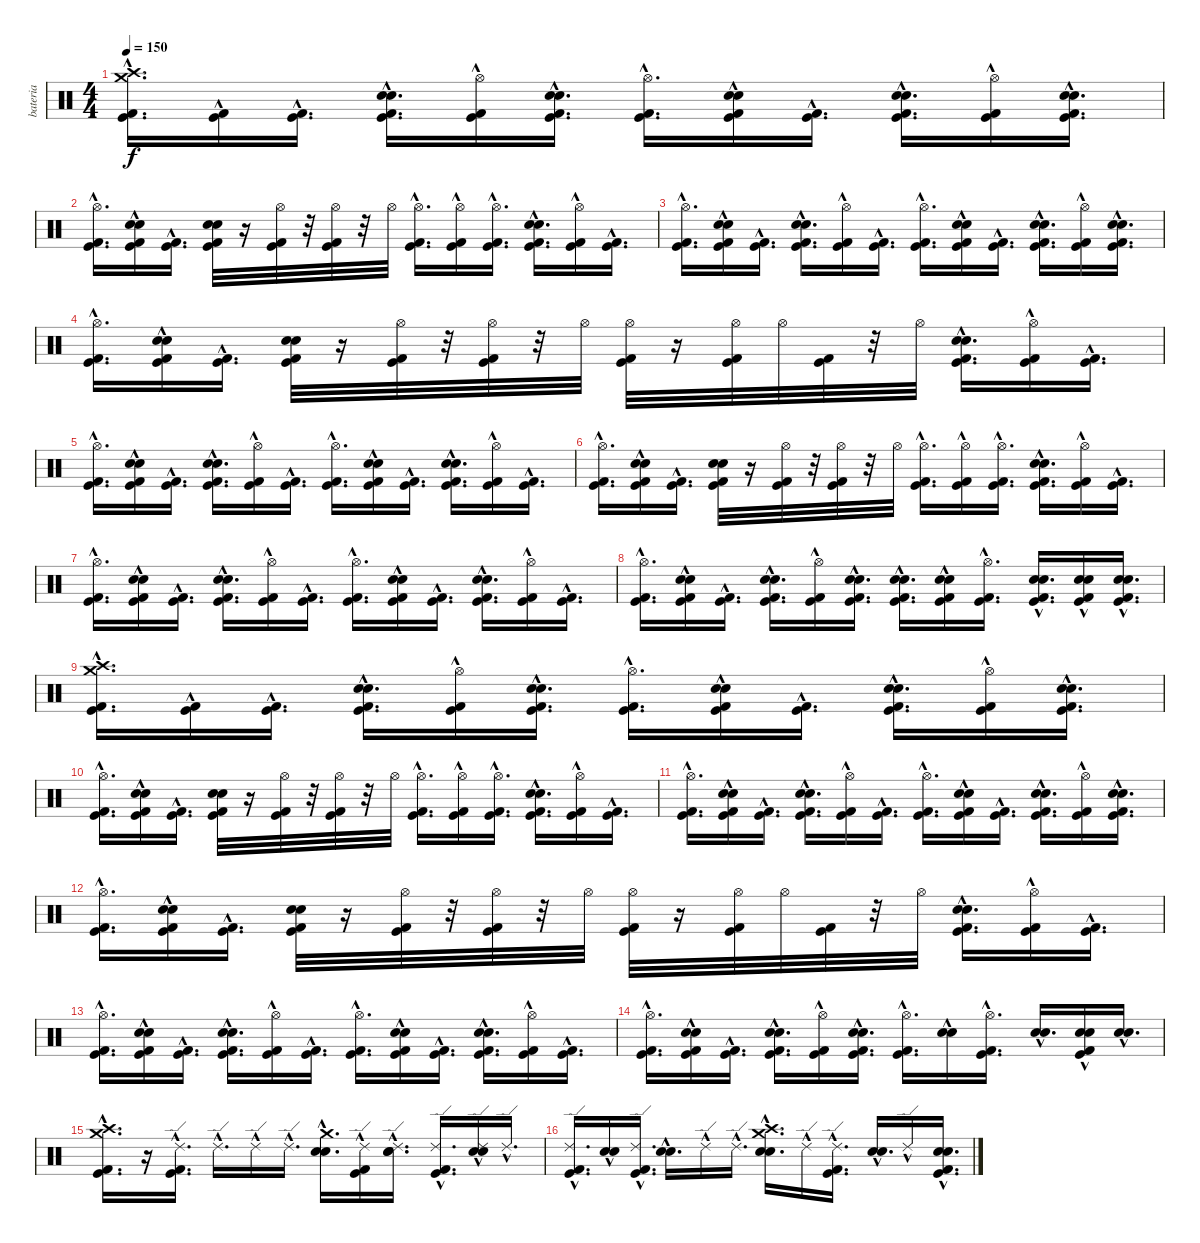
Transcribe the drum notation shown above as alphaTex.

\track ("bateria" "bateria") {instrument percussion}
\staff {score}
\articulation defaults
\ts (4 4)
\tempo 150
\clef neutral
\ks c
("Crash high (hit)"{hac} "Crash medium (hit)"{hac} "Kick (hit) 2"{hac} "Kick (hit)"{hac}).16{d dy f} ("Kick (hit) 2"{hac} "Kick (hit)"{hac}).16 ("Kick (hit) 2"{hac} "Kick (hit)"{hac}).16{d} ("Electric Snare (hit)"{hac} "Snare (hit) 2"{hac} "Kick (hit) 2"{hac} "Kick (hit)"{hac}).16{d} ("Hi-Hat (open)"{hac} "Kick (hit) 2"{hac} "Kick (hit)"{hac}).16 ("Electric Snare (hit)"{hac} "Snare (hit) 2"{hac} "Kick (hit) 2"{hac} "Kick (hit)"{hac}).16{d} ("Hi-Hat (open)"{hac} "Kick (hit) 2"{hac} "Kick (hit)"{hac}).16{d} ("Electric Snare (hit)"{hac} "Snare (hit) 2"{hac} "Kick (hit) 2"{hac} "Kick (hit)"{hac}).16 ("Kick (hit) 2"{hac} "Kick (hit)"{hac}).16{d} ("Electric Snare (hit)"{hac} "Snare (hit) 2"{hac} "Kick (hit) 2"{hac} "Kick (hit)"{hac}).16{d} ("Hi-Hat (open)"{hac} "Kick (hit) 2"{hac} "Kick (hit)"{hac}).16 ("Electric Snare (hit)"{hac} "Snare (hit) 2"{hac} "Kick (hit) 2"{hac} "Kick (hit)"{hac}).16{d} |
("Hi-Hat (open)"{hac} "Kick (hit) 2"{hac} "Kick (hit)"{hac}).16{d} ("Electric Snare (hit)"{hac} "Snare (hit) 2"{hac} "Kick (hit) 2"{hac} "Kick (hit)"{hac}).16 ("Kick (hit) 2"{hac} "Kick (hit)"{hac}).16{d} ("Snare (hit) 2" "Electric Snare (hit)" "Kick (hit) 2" "Kick (hit)").32 r.16 ("Hi-Hat (open)" "Kick (hit) 2" "Kick (hit)").32 r.32 ("Hi-Hat (open)" "Kick (hit) 2" "Kick (hit)").32 r.32 "Hi-Hat (open)".32 ("Hi-Hat (open)"{hac} "Kick (hit) 2"{hac} "Kick (hit)"{hac}).16{d} ("Hi-Hat (open)"{hac} "Kick (hit) 2"{hac} "Kick (hit)"{hac}).16 ("Hi-Hat (open)"{hac} "Kick (hit) 2"{hac} "Kick (hit)"{hac}).16{d} ("Electric Snare (hit)"{hac} "Snare (hit) 2"{hac} "Kick (hit) 2"{hac} "Kick (hit)"{hac}).16{d} ("Hi-Hat (open)"{hac} "Kick (hit) 2"{hac} "Kick (hit)"{hac}).16 ("Kick (hit) 2"{hac} "Kick (hit)"{hac}).16{d} |
("Hi-Hat (open)"{hac} "Kick (hit) 2"{hac} "Kick (hit)"{hac}).16{d} ("Snare (hit) 2"{hac} "Electric Snare (hit)"{hac} "Kick (hit) 2"{hac} "Kick (hit)"{hac}).16 ("Kick (hit) 2"{hac} "Kick (hit)"{hac}).16{d} ("Electric Snare (hit)"{hac} "Snare (hit) 2"{hac} "Kick (hit) 2"{hac} "Kick (hit)"{hac}).16{d} ("Hi-Hat (open)"{hac} "Kick (hit) 2"{hac} "Kick (hit)"{hac}).16 ("Kick (hit) 2"{hac} "Kick (hit)"{hac}).16{d} ("Hi-Hat (open)"{hac} "Kick (hit) 2"{hac} "Kick (hit)"{hac}).16{d} ("Electric Snare (hit)"{hac} "Snare (hit) 2"{hac} "Kick (hit) 2"{hac} "Kick (hit)"{hac}).16 ("Kick (hit) 2"{hac} "Kick (hit)"{hac}).16{d} ("Electric Snare (hit)"{hac} "Snare (hit) 2"{hac} "Kick (hit) 2"{hac} "Kick (hit)"{hac}).16{d} ("Hi-Hat (open)"{hac} "Kick (hit) 2"{hac} "Kick (hit)"{hac}).16 ("Electric Snare (hit)"{hac} "Snare (hit) 2"{hac} "Kick (hit) 2"{hac} "Kick (hit)"{hac}).16{d} |
("Hi-Hat (open)"{hac} "Kick (hit) 2"{hac} "Kick (hit)"{hac}).16{d} ("Electric Snare (hit)"{hac} "Snare (hit) 2"{hac} "Kick (hit) 2"{hac} "Kick (hit)"{hac}).16 ("Kick (hit) 2"{hac} "Kick (hit)"{hac}).16{d} ("Electric Snare (hit)" "Snare (hit) 2" "Kick (hit) 2" "Kick (hit)").32 r.16 ("Hi-Hat (open)" "Kick (hit) 2" "Kick (hit)").32 r.32 ("Hi-Hat (open)" "Kick (hit) 2" "Kick (hit)").32 r.32 "Hi-Hat (open)".32 ("Hi-Hat (open)" "Kick (hit)" "Kick (hit) 2").32 r.16 ("Hi-Hat (open)" "Kick (hit)" "Kick (hit) 2").32 "Hi-Hat (open)".32 ("Kick (hit)" "Kick (hit) 2").32 r.32 "Hi-Hat (open)".32 ("Electric Snare (hit)"{hac} "Snare (hit) 2"{hac} "Kick (hit) 2"{hac} "Kick (hit)"{hac}).16{d} ("Hi-Hat (open)"{hac} "Kick (hit) 2"{hac} "Kick (hit)"{hac}).16 ("Kick (hit) 2"{hac} "Kick (hit)"{hac}).16{d} |
("Hi-Hat (open)"{hac} "Kick (hit) 2"{hac} "Kick (hit)"{hac}).16{d} ("Electric Snare (hit)"{hac} "Snare (hit) 2"{hac} "Kick (hit) 2"{hac} "Kick (hit)"{hac}).16 ("Kick (hit) 2"{hac} "Kick (hit)"{hac}).16{d} ("Electric Snare (hit)"{hac} "Snare (hit) 2"{hac} "Kick (hit) 2"{hac} "Kick (hit)"{hac}).16{d} ("Hi-Hat (open)"{hac} "Kick (hit) 2"{hac} "Kick (hit)"{hac}).16 ("Kick (hit) 2"{hac} "Kick (hit)"{hac}).16{d} ("Hi-Hat (open)"{hac} "Kick (hit) 2"{hac} "Kick (hit)"{hac}).16{d} ("Electric Snare (hit)"{hac} "Snare (hit) 2"{hac} "Kick (hit) 2"{hac} "Kick (hit)"{hac}).16 ("Kick (hit) 2"{hac} "Kick (hit)"{hac}).16{d} ("Electric Snare (hit)"{hac} "Snare (hit) 2"{hac} "Kick (hit) 2"{hac} "Kick (hit)"{hac}).16{d} ("Hi-Hat (open)"{hac} "Kick (hit) 2"{hac} "Kick (hit)"{hac}).16 ("Kick (hit) 2"{hac} "Kick (hit)"{hac}).16{d} |
("Hi-Hat (open)"{hac} "Kick (hit) 2"{hac} "Kick (hit)"{hac}).16{d} ("Electric Snare (hit)"{hac} "Snare (hit) 2"{hac} "Kick (hit) 2"{hac} "Kick (hit)"{hac}).16 ("Kick (hit) 2"{hac} "Kick (hit)"{hac}).16{d} ("Snare (hit) 2" "Electric Snare (hit)" "Kick (hit) 2" "Kick (hit)").32 r.16 ("Hi-Hat (open)" "Kick (hit) 2" "Kick (hit)").32 r.32 ("Hi-Hat (open)" "Kick (hit) 2" "Kick (hit)").32 r.32 "Hi-Hat (open)".32 ("Hi-Hat (open)"{hac} "Kick (hit) 2"{hac} "Kick (hit)"{hac}).16{d} ("Hi-Hat (open)"{hac} "Kick (hit) 2"{hac} "Kick (hit)"{hac}).16 ("Hi-Hat (open)"{hac} "Kick (hit) 2"{hac} "Kick (hit)"{hac}).16{d} ("Electric Snare (hit)"{hac} "Snare (hit) 2"{hac} "Kick (hit) 2"{hac} "Kick (hit)"{hac}).16{d} ("Hi-Hat (open)"{hac} "Kick (hit) 2"{hac} "Kick (hit)"{hac}).16 ("Kick (hit) 2"{hac} "Kick (hit)"{hac}).16{d} |
("Hi-Hat (open)"{hac} "Kick (hit) 2"{hac} "Kick (hit)"{hac}).16{d} ("Electric Snare (hit)"{hac} "Snare (hit) 2"{hac} "Kick (hit) 2"{hac} "Kick (hit)"{hac}).16 ("Kick (hit) 2"{hac} "Kick (hit)"{hac}).16{d} ("Electric Snare (hit)"{hac} "Snare (hit) 2"{hac} "Kick (hit) 2"{hac} "Kick (hit)"{hac}).16{d} ("Hi-Hat (open)"{hac} "Kick (hit) 2"{hac} "Kick (hit)"{hac}).16 ("Kick (hit) 2"{hac} "Kick (hit)"{hac}).16{d} ("Hi-Hat (open)"{hac} "Kick (hit) 2"{hac} "Kick (hit)"{hac}).16{d} ("Electric Snare (hit)"{hac} "Snare (hit) 2"{hac} "Kick (hit) 2"{hac} "Kick (hit)"{hac}).16 ("Kick (hit) 2"{hac} "Kick (hit)"{hac}).16{d} ("Electric Snare (hit)"{hac} "Snare (hit) 2"{hac} "Kick (hit) 2"{hac} "Kick (hit)"{hac}).16{d} ("Hi-Hat (open)"{hac} "Kick (hit) 2"{hac} "Kick (hit)"{hac}).16 ("Kick (hit) 2"{hac} "Kick (hit)"{hac}).16{d} |
("Hi-Hat (open)"{hac} "Kick (hit) 2"{hac} "Kick (hit)"{hac}).16{d} ("Electric Snare (hit)"{hac} "Snare (hit) 2"{hac} "Kick (hit) 2"{hac} "Kick (hit)"{hac}).16 ("Kick (hit) 2"{hac} "Kick (hit)"{hac}).16{d} ("Electric Snare (hit)"{hac} "Snare (hit) 2"{hac} "Kick (hit) 2"{hac} "Kick (hit)"{hac}).16{d} ("Hi-Hat (open)"{hac} "Kick (hit) 2"{hac} "Kick (hit)"{hac}).16 ("Electric Snare (hit)"{hac} "Snare (hit) 2"{hac} "Kick (hit) 2"{hac} "Kick (hit)"{hac}).16{d} ("Electric Snare (hit)"{hac} "Snare (hit) 2"{hac} "Kick (hit) 2"{hac} "Kick (hit)"{hac}).16{d} ("Electric Snare (hit)"{hac} "Snare (hit) 2"{hac} "Kick (hit) 2"{hac} "Kick (hit)"{hac}).16 ("Hi-Hat (open)"{hac} "Kick (hit) 2"{hac} "Kick (hit)"{hac}).16{d} ("Electric Snare (hit)"{hac} "Snare (hit) 2"{hac} "Kick (hit) 2"{hac} "Kick (hit)"{hac}).16{d} ("Electric Snare (hit)"{hac} "Snare (hit) 2"{hac} "Kick (hit) 2"{hac} "Kick (hit)"{hac}).16 ("Electric Snare (hit)"{hac} "Snare (hit) 2"{hac} "Kick (hit) 2"{hac} "Kick (hit)"{hac}).16{d} |
("Crash high (hit)"{hac} "Crash medium (hit)"{hac} "Kick (hit) 2"{hac} "Kick (hit)"{hac}).16{d} ("Kick (hit) 2"{hac} "Kick (hit)"{hac}).16 ("Kick (hit) 2"{hac} "Kick (hit)"{hac}).16{d} ("Electric Snare (hit)"{hac} "Snare (hit) 2"{hac} "Kick (hit) 2"{hac} "Kick (hit)"{hac}).16{d} ("Hi-Hat (open)"{hac} "Kick (hit) 2"{hac} "Kick (hit)"{hac}).16 ("Electric Snare (hit)"{hac} "Snare (hit) 2"{hac} "Kick (hit) 2"{hac} "Kick (hit)"{hac}).16{d} ("Hi-Hat (open)"{hac} "Kick (hit) 2"{hac} "Kick (hit)"{hac}).16{d} ("Electric Snare (hit)"{hac} "Snare (hit) 2"{hac} "Kick (hit) 2"{hac} "Kick (hit)"{hac}).16 ("Kick (hit) 2"{hac} "Kick (hit)"{hac}).16{d} ("Electric Snare (hit)"{hac} "Snare (hit) 2"{hac} "Kick (hit) 2"{hac} "Kick (hit)"{hac}).16{d} ("Hi-Hat (open)"{hac} "Kick (hit) 2"{hac} "Kick (hit)"{hac}).16 ("Electric Snare (hit)"{hac} "Snare (hit) 2"{hac} "Kick (hit) 2"{hac} "Kick (hit)"{hac}).16{d} |
("Hi-Hat (open)"{hac} "Kick (hit) 2"{hac} "Kick (hit)"{hac}).16{d} ("Electric Snare (hit)"{hac} "Snare (hit) 2"{hac} "Kick (hit) 2"{hac} "Kick (hit)"{hac}).16 ("Kick (hit) 2"{hac} "Kick (hit)"{hac}).16{d} ("Snare (hit) 2" "Electric Snare (hit)" "Kick (hit) 2" "Kick (hit)").32 r.16 ("Hi-Hat (open)" "Kick (hit) 2" "Kick (hit)").32 r.32 ("Hi-Hat (open)" "Kick (hit) 2" "Kick (hit)").32 r.32 "Hi-Hat (open)".32 ("Hi-Hat (open)"{hac} "Kick (hit) 2"{hac} "Kick (hit)"{hac}).16{d} ("Hi-Hat (open)"{hac} "Kick (hit) 2"{hac} "Kick (hit)"{hac}).16 ("Hi-Hat (open)"{hac} "Kick (hit) 2"{hac} "Kick (hit)"{hac}).16{d} ("Electric Snare (hit)"{hac} "Snare (hit) 2"{hac} "Kick (hit) 2"{hac} "Kick (hit)"{hac}).16{d} ("Hi-Hat (open)"{hac} "Kick (hit) 2"{hac} "Kick (hit)"{hac}).16 ("Kick (hit) 2"{hac} "Kick (hit)"{hac}).16{d} |
("Hi-Hat (open)"{hac} "Kick (hit) 2"{hac} "Kick (hit)"{hac}).16{d} ("Snare (hit) 2"{hac} "Electric Snare (hit)"{hac} "Kick (hit) 2"{hac} "Kick (hit)"{hac}).16 ("Kick (hit) 2"{hac} "Kick (hit)"{hac}).16{d} ("Electric Snare (hit)"{hac} "Snare (hit) 2"{hac} "Kick (hit) 2"{hac} "Kick (hit)"{hac}).16{d} ("Hi-Hat (open)"{hac} "Kick (hit) 2"{hac} "Kick (hit)"{hac}).16 ("Kick (hit) 2"{hac} "Kick (hit)"{hac}).16{d} ("Hi-Hat (open)"{hac} "Kick (hit) 2"{hac} "Kick (hit)"{hac}).16{d} ("Electric Snare (hit)"{hac} "Snare (hit) 2"{hac} "Kick (hit) 2"{hac} "Kick (hit)"{hac}).16 ("Kick (hit) 2"{hac} "Kick (hit)"{hac}).16{d} ("Electric Snare (hit)"{hac} "Snare (hit) 2"{hac} "Kick (hit) 2"{hac} "Kick (hit)"{hac}).16{d} ("Hi-Hat (open)"{hac} "Kick (hit) 2"{hac} "Kick (hit)"{hac}).16 ("Electric Snare (hit)"{hac} "Snare (hit) 2"{hac} "Kick (hit) 2"{hac} "Kick (hit)"{hac}).16{d} |
("Hi-Hat (open)"{hac} "Kick (hit) 2"{hac} "Kick (hit)"{hac}).16{d} ("Electric Snare (hit)"{hac} "Snare (hit) 2"{hac} "Kick (hit) 2"{hac} "Kick (hit)"{hac}).16 ("Kick (hit) 2"{hac} "Kick (hit)"{hac}).16{d} ("Electric Snare (hit)" "Snare (hit) 2" "Kick (hit) 2" "Kick (hit)").32 r.16 ("Hi-Hat (open)" "Kick (hit) 2" "Kick (hit)").32 r.32 ("Hi-Hat (open)" "Kick (hit) 2" "Kick (hit)").32 r.32 "Hi-Hat (open)".32 ("Hi-Hat (open)" "Kick (hit)" "Kick (hit) 2").32 r.16 ("Hi-Hat (open)" "Kick (hit)" "Kick (hit) 2").32 "Hi-Hat (open)".32 ("Kick (hit)" "Kick (hit) 2").32 r.32 "Hi-Hat (open)".32 ("Electric Snare (hit)"{hac} "Snare (hit) 2"{hac} "Kick (hit) 2"{hac} "Kick (hit)"{hac}).16{d} ("Hi-Hat (open)"{hac} "Kick (hit) 2"{hac} "Kick (hit)"{hac}).16 ("Kick (hit) 2"{hac} "Kick (hit)"{hac}).16{d} |
("Hi-Hat (open)"{hac} "Kick (hit) 2"{hac} "Kick (hit)"{hac}).16{d} ("Electric Snare (hit)"{hac} "Snare (hit) 2"{hac} "Kick (hit) 2"{hac} "Kick (hit)"{hac}).16 ("Kick (hit) 2"{hac} "Kick (hit)"{hac}).16{d} ("Electric Snare (hit)"{hac} "Snare (hit) 2"{hac} "Kick (hit) 2"{hac} "Kick (hit)"{hac}).16{d} ("Hi-Hat (open)"{hac} "Kick (hit) 2"{hac} "Kick (hit)"{hac}).16 ("Kick (hit) 2"{hac} "Kick (hit)"{hac}).16{d} ("Hi-Hat (open)"{hac} "Kick (hit) 2"{hac} "Kick (hit)"{hac}).16{d} ("Electric Snare (hit)"{hac} "Snare (hit) 2"{hac} "Kick (hit) 2"{hac} "Kick (hit)"{hac}).16 ("Kick (hit) 2"{hac} "Kick (hit)"{hac}).16{d} ("Electric Snare (hit)"{hac} "Snare (hit) 2"{hac} "Kick (hit) 2"{hac} "Kick (hit)"{hac}).16{d} ("Hi-Hat (open)"{hac} "Kick (hit) 2"{hac} "Kick (hit)"{hac}).16 ("Kick (hit) 2"{hac} "Kick (hit)"{hac}).16{d} |
("Hi-Hat (open)"{hac} "Kick (hit) 2"{hac} "Kick (hit)"{hac}).16{d} ("Electric Snare (hit)"{hac} "Snare (hit) 2"{hac} "Kick (hit) 2"{hac} "Kick (hit)"{hac}).16 ("Kick (hit) 2"{hac} "Kick (hit)"{hac}).16{d} ("Electric Snare (hit)"{hac} "Snare (hit) 2"{hac} "Kick (hit)"{hac} "Kick (hit) 2"{hac}).16{d} ("Hi-Hat (open)"{hac} "Kick (hit)"{hac} "Kick (hit) 2"{hac}).16 ("Electric Snare (hit)"{hac} "Snare (hit) 2"{hac} "Kick (hit)"{hac} "Kick (hit) 2"{hac}).16{d} ("Hi-Hat (open)"{hac} "Kick (hit) 2"{hac} "Kick (hit)"{hac}).16{d} ("Snare (hit) 2"{hac} "Electric Snare (hit)"{hac}).16 ("Hi-Hat (open)"{hac} "Kick (hit) 2"{hac} "Kick (hit)"{hac}).16{d} ("Electric Snare (hit)"{hac} "Snare (hit) 2"{hac}).16{d} ("Kick (hit)"{hac} "Kick (hit) 2"{hac} "Electric Snare (hit)"{hac} "Snare (hit) 2"{hac}).16 ("Electric Snare (hit)"{hac} "Snare (hit) 2"{hac}).16{d} |
("Crash high (hit)"{hac} "Crash medium (hit)"{hac} "Kick (hit) 2"{hac} "Kick (hit)"{hac}).16{d} r.16 ("Ride (edge) 2"{hac} "Kick (hit) 2"{hac} "Kick (hit)"{hac}).16{d} "Ride (edge) 2"{hac}.16{d} "Ride (edge) 2"{hac}.16 "Ride (edge) 2"{hac}.16{d} ("Electric Snare (hit)"{hac} "Snare (hit) 2"{hac} "Crash medium (hit)"{hac}).16{d} ("Kick (hit) 2"{hac} "Kick (hit)"{hac} "Ride (edge) 2"{hac}).16 ("Electric Snare (hit)"{hac} "Snare (hit) 2"{hac} "Ride (edge) 2"{hac}).16{d} ("Kick (hit) 2"{hac} "Kick (hit)"{hac} "Ride (edge) 2"{hac}).16{d} ("Electric Snare (hit)"{hac} "Snare (hit) 2"{hac} "Ride (edge) 2"{hac}).16 "Ride (edge) 2"{hac}.16{d} |
("Kick (hit) 2"{hac} "Kick (hit)"{hac} "Ride (edge) 2"{hac}).16{d} ("Electric Snare (hit)"{hac} "Snare (hit) 2"{hac}).16 ("Kick (hit) 2"{hac} "Kick (hit)"{hac} "Ride (edge) 2"{hac}).16{d} ("Electric Snare (hit)"{hac} "Snare (hit) 2"{hac}).16{d} "Ride (edge) 2"{hac}.16 "Ride (edge) 2"{hac}.16{d} ("Electric Snare (hit)"{hac} "Snare (hit) 2"{hac} "Crash high (hit)"{hac} "Crash medium (hit)"{hac}).16{d} "Ride (edge) 2"{hac}.16 ("Kick (hit) 2"{hac} "Kick (hit)"{hac} "Ride (edge) 2"{hac}).16{d} ("Electric Snare (hit)"{hac} "Snare (hit) 2"{hac}).16{d} "Ride (edge) 2"{hac}.16 ("Kick (hit) 2"{hac} "Snare (hit) 2"{hac} "Kick (hit)"{hac} "Electric Snare (hit)"{hac}).16{d}
